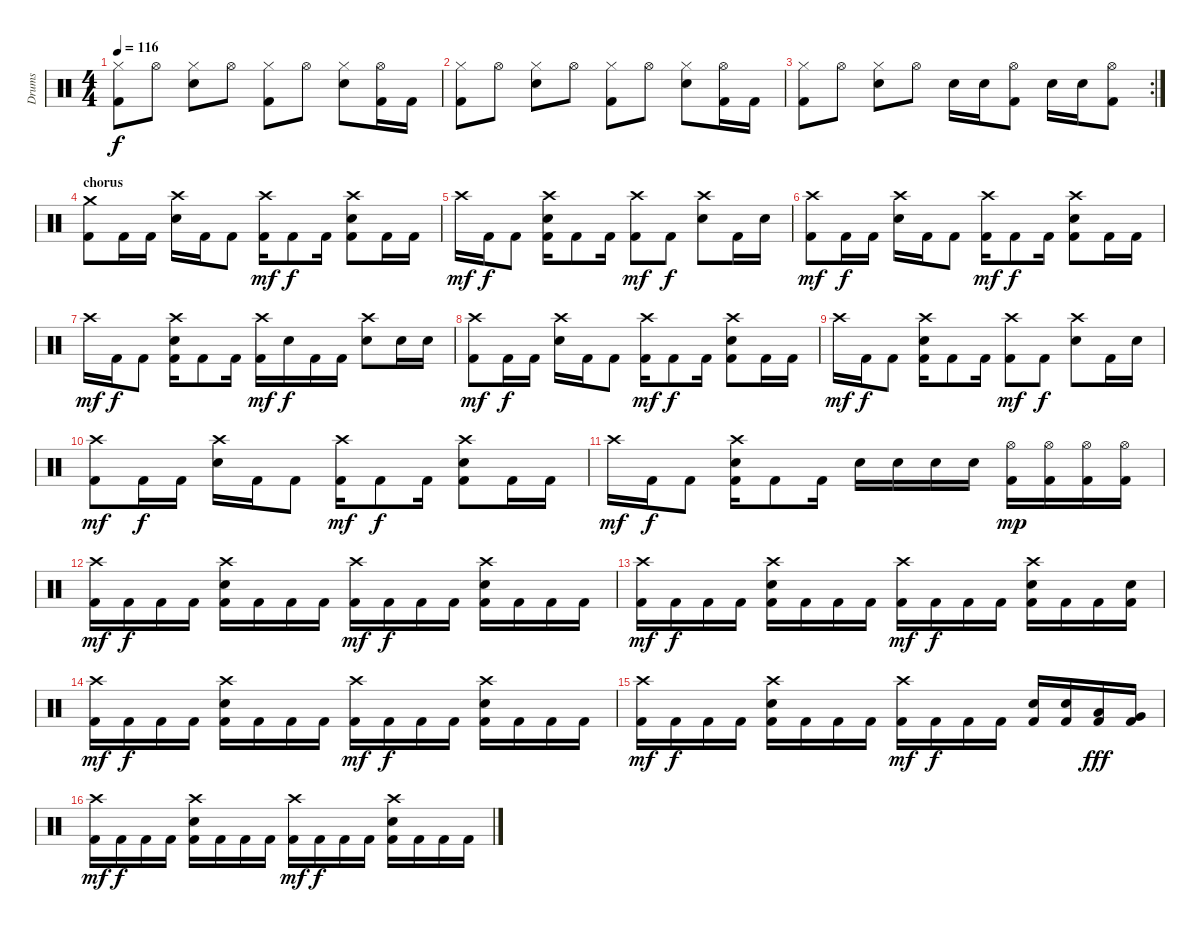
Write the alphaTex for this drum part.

\track ("Drums" "Drums") {instrument percussion}
\staff {score}
\articulation defaults
\ts (4 4)
\tempo 116
\clef neutral
\ks c
("Kick (hit) 2" "Hi-Hat (closed)").8{dy f} "Hi-Hat (open)".8 ("Hi-Hat (closed)" "Electric Snare (hit)").8 "Hi-Hat (open)".8 ("Kick (hit) 2" "Hi-Hat (closed)").8 "Hi-Hat (open)".8 ("Hi-Hat (closed)" "Electric Snare (hit)").8 ("Kick (hit) 2" "Hi-Hat (open)").16 "Kick (hit) 2".16 |
("Kick (hit) 2" "Hi-Hat (closed)").8 "Hi-Hat (open)".8 ("Hi-Hat (closed)" "Electric Snare (hit)").8 "Hi-Hat (open)".8 ("Kick (hit) 2" "Hi-Hat (closed)").8 "Hi-Hat (open)".8 ("Hi-Hat (closed)" "Electric Snare (hit)").8 ("Kick (hit) 2" "Hi-Hat (open)").16 "Kick (hit) 2".16 |
\rc 2
("Kick (hit) 2" "Hi-Hat (closed)").8 "Hi-Hat (open)".8 ("Hi-Hat (closed)" "Electric Snare (hit)").8 "Hi-Hat (open)".8 "Electric Snare (hit)".16 "Electric Snare (hit)".16 ("Kick (hit) 2" "Hi-Hat (open)").8 "Electric Snare (hit)".16 "Electric Snare (hit)".16 ("Kick (hit) 2" "Hi-Hat (open)").8 |
\section ("" "chorus")
("Kick (hit) 2" "Crash medium (hit)").8 "Kick (hit) 2".16 "Kick (hit) 2".16 ("Crash high (hit)" "Electric Snare (hit)").16 "Kick (hit) 2".16 "Kick (hit) 2".8 ("Kick (hit) 2" "Crash high (hit)").16{dy mf} "Kick (hit) 2".8{dy f} "Kick (hit) 2".16 ("Kick (hit) 2" "Crash high (hit)" "Electric Snare (hit)").8 "Kick (hit) 2".16 "Kick (hit) 2".16 |
"Crash high (hit)".16{dy mf} "Kick (hit) 2".16{dy f} "Kick (hit) 2".8 ("Kick (hit) 2" "Crash high (hit)" "Electric Snare (hit)").16 "Kick (hit) 2".8 "Kick (hit) 2".16 ("Kick (hit) 2" "Crash high (hit)").8{dy mf} "Kick (hit) 2".8{dy f} ("Crash high (hit)" "Electric Snare (hit)").8 "Kick (hit) 2".16 "Electric Snare (hit)".16 |
("Kick (hit) 2" "Crash high (hit)").8{dy mf} "Kick (hit) 2".16{dy f} "Kick (hit) 2".16 ("Crash high (hit)" "Electric Snare (hit)").16 "Kick (hit) 2".16 "Kick (hit) 2".8 ("Kick (hit) 2" "Crash high (hit)").16{dy mf} "Kick (hit) 2".8{dy f} "Kick (hit) 2".16 ("Kick (hit) 2" "Crash high (hit)" "Electric Snare (hit)").8 "Kick (hit) 2".16 "Kick (hit) 2".16 |
"Crash high (hit)".16{dy mf} "Kick (hit) 2".16{dy f} "Kick (hit) 2".8 ("Kick (hit) 2" "Crash high (hit)" "Electric Snare (hit)").16 "Kick (hit) 2".8 "Kick (hit) 2".16 ("Kick (hit) 2" "Crash high (hit)").16{dy mf} "Electric Snare (hit)".16{dy f} "Kick (hit) 2".16 "Kick (hit) 2".16 ("Crash high (hit)" "Electric Snare (hit)").8 "Electric Snare (hit)".16 "Electric Snare (hit)".16 |
("Kick (hit) 2" "Crash high (hit)").8{dy mf} "Kick (hit) 2".16{dy f} "Kick (hit) 2".16 ("Crash high (hit)" "Electric Snare (hit)").16 "Kick (hit) 2".16 "Kick (hit) 2".8 ("Kick (hit) 2" "Crash high (hit)").16{dy mf} "Kick (hit) 2".8{dy f} "Kick (hit) 2".16 ("Kick (hit) 2" "Crash high (hit)" "Electric Snare (hit)").8 "Kick (hit) 2".16 "Kick (hit) 2".16 |
"Crash high (hit)".16{dy mf} "Kick (hit) 2".16{dy f} "Kick (hit) 2".8 ("Kick (hit) 2" "Crash high (hit)" "Electric Snare (hit)").16 "Kick (hit) 2".8 "Kick (hit) 2".16 ("Kick (hit) 2" "Crash high (hit)").8{dy mf} "Kick (hit) 2".8{dy f} ("Crash high (hit)" "Electric Snare (hit)").8 "Kick (hit) 2".16 "Electric Snare (hit)".16 |
("Kick (hit) 2" "Crash high (hit)").8{dy mf} "Kick (hit) 2".16{dy f} "Kick (hit) 2".16 ("Crash high (hit)" "Electric Snare (hit)").16 "Kick (hit) 2".16 "Kick (hit) 2".8 ("Kick (hit) 2" "Crash high (hit)").16{dy mf} "Kick (hit) 2".8{dy f} "Kick (hit) 2".16 ("Kick (hit) 2" "Crash high (hit)" "Electric Snare (hit)").8 "Kick (hit) 2".16 "Kick (hit) 2".16 |
"Crash high (hit)".16{dy mf} "Kick (hit) 2".16{dy f} "Kick (hit) 2".8 ("Kick (hit) 2" "Crash high (hit)" "Electric Snare (hit)").16 "Kick (hit) 2".8 "Kick (hit) 2".16 "Electric Snare (hit)".16 "Electric Snare (hit)".16 "Electric Snare (hit)".16 "Electric Snare (hit)".16 ("Kick (hit) 2" "Hi-Hat (open)").16{dy mp} ("Kick (hit) 2" "Hi-Hat (open)").16 ("Kick (hit) 2" "Hi-Hat (open)").16 ("Kick (hit) 2" "Hi-Hat (open)").16 |
("Kick (hit) 2" "Crash high (hit)").16{dy mf} "Kick (hit) 2".16{dy f} "Kick (hit) 2".16 "Kick (hit) 2".16 ("Kick (hit) 2" "Crash high (hit)" "Electric Snare (hit)").16 "Kick (hit) 2".16 "Kick (hit) 2".16 "Kick (hit) 2".16 ("Kick (hit) 2" "Crash high (hit)").16{dy mf} "Kick (hit) 2".16{dy f} "Kick (hit) 2".16 "Kick (hit) 2".16 ("Kick (hit) 2" "Crash high (hit)" "Electric Snare (hit)").16 "Kick (hit) 2".16 "Kick (hit) 2".16 "Kick (hit) 2".16 |
("Kick (hit) 2" "Crash high (hit)").16{dy mf} "Kick (hit) 2".16{dy f} "Kick (hit) 2".16 "Kick (hit) 2".16 ("Kick (hit) 2" "Crash high (hit)" "Electric Snare (hit)").16 "Kick (hit) 2".16 "Kick (hit) 2".16 "Kick (hit) 2".16 ("Kick (hit) 2" "Crash high (hit)").16{dy mf} "Kick (hit) 2".16{dy f} "Kick (hit) 2".16 "Kick (hit) 2".16 ("Kick (hit) 2" "Crash high (hit)" "Electric Snare (hit)").16 "Kick (hit) 2".16 "Kick (hit) 2".16 ("Kick (hit) 2" "Electric Snare (hit)").16 |
("Kick (hit) 2" "Crash high (hit)").16{dy mf} "Kick (hit) 2".16{dy f} "Kick (hit) 2".16 "Kick (hit) 2".16 ("Kick (hit) 2" "Crash high (hit)" "Electric Snare (hit)").16 "Kick (hit) 2".16 "Kick (hit) 2".16 "Kick (hit) 2".16 ("Kick (hit) 2" "Crash high (hit)").16{dy mf} "Kick (hit) 2".16{dy f} "Kick (hit) 2".16 "Kick (hit) 2".16 ("Kick (hit) 2" "Crash high (hit)" "Electric Snare (hit)").16 "Kick (hit) 2".16 "Kick (hit) 2".16 "Kick (hit) 2".16 |
("Kick (hit) 2" "Crash high (hit)").16{dy mf} "Kick (hit) 2".16{dy f} "Kick (hit) 2".16 "Kick (hit) 2".16 ("Kick (hit) 2" "Crash high (hit)" "Electric Snare (hit)").16 "Kick (hit) 2".16 "Kick (hit) 2".16 "Kick (hit) 2".16 ("Kick (hit) 2" "Crash high (hit)").16{dy mf} "Kick (hit) 2".16{dy f} "Kick (hit) 2".16 "Kick (hit) 2".16 ("Kick (hit) 2" "Electric Snare (hit)").16 ("Kick (hit) 2" "Electric Snare (hit)").16 ("Kick (hit) 2" "Low Tom (hit)").16{dy fff} ("Kick (hit) 2" "Very Low Tom (hit)").16 |
("Kick (hit) 2" "Crash high (hit)").16{dy mf} "Kick (hit) 2".16{dy f} "Kick (hit) 2".16 "Kick (hit) 2".16 ("Kick (hit) 2" "Crash high (hit)" "Electric Snare (hit)").16 "Kick (hit) 2".16 "Kick (hit) 2".16 "Kick (hit) 2".16 ("Kick (hit) 2" "Crash high (hit)").16{dy mf} "Kick (hit) 2".16{dy f} "Kick (hit) 2".16 "Kick (hit) 2".16 ("Kick (hit) 2" "Crash high (hit)" "Electric Snare (hit)").16 "Kick (hit) 2".16 "Kick (hit) 2".16 "Kick (hit) 2".16
